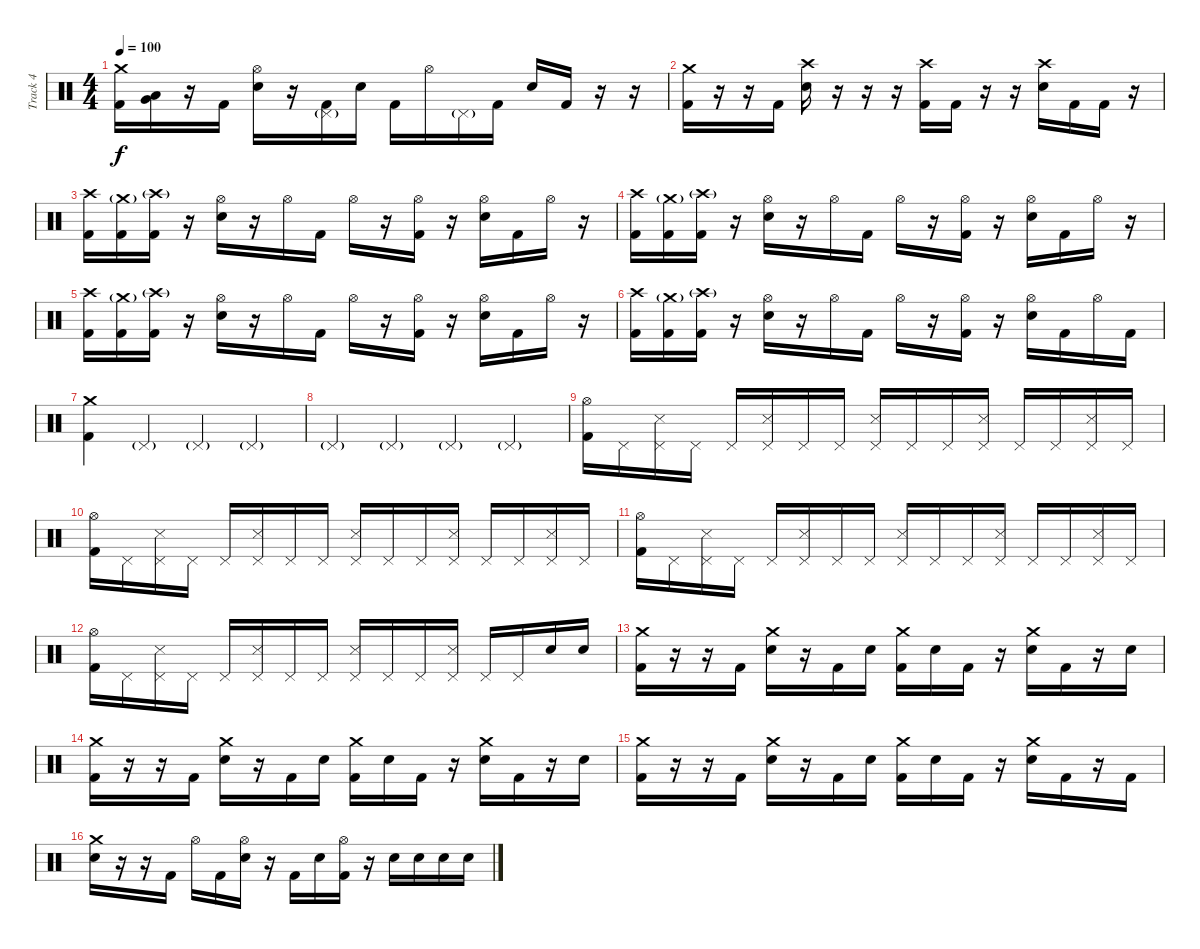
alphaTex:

\track ("Track 4" "Track 4") {instrument percussion}
\staff {score}
\articulation defaults
\ts (4 4)
\tempo 100
\clef neutral
\ks c
("Crash medium (hit)" "Kick (hit) 2").16{dy f} ("Very Low Tom (hit)" "Low Tom (hit)").16 r.16 "Kick (hit) 2".16 ("Hi-Hat (open)" "Electric Snare (hit)").16 r.16 ("Pedal Hi-Hat (hit)"{g} "Kick (hit) 2").16 "Electric Snare (hit)".16 "Kick (hit) 2".16 "Hi-Hat (open)".16 "Pedal Hi-Hat (hit)"{g}.16 "Kick (hit) 2".16 "Electric Snare (hit)".16 "Kick (hit) 2".16 r.16 r.16 |
("Crash medium (hit)" "Kick (hit) 2").16 r.16 r.16 "Kick (hit) 2".16 ("Crash high (hit)" "Electric Snare (hit)").16 r.16 r.16 r.16 ("Crash high (hit)" "Kick (hit) 2").16 "Kick (hit) 2".16 r.16 r.16 ("Crash high (hit)" "Electric Snare (hit)").16 "Kick (hit) 2".16 "Kick (hit) 2".16 r.16 |
("Crash high (hit)" "Kick (hit) 2").16 ("Crash medium (hit)"{g} "Kick (hit) 2").16 ("Crash high (hit)"{g} "Kick (hit) 2").16 r.16 ("Hi-Hat (open)" "Electric Snare (hit)").16 r.16 "Hi-Hat (open)".16 "Kick (hit) 2".16 "Hi-Hat (open)".16 r.16 ("Hi-Hat (open)" "Kick (hit) 2").16 r.16 ("Hi-Hat (open)" "Electric Snare (hit)").16 "Kick (hit) 2".16 "Hi-Hat (open)".16 r.16 |
("Crash high (hit)" "Kick (hit) 2").16 ("Crash medium (hit)"{g} "Kick (hit) 2").16 ("Crash high (hit)"{g} "Kick (hit) 2").16 r.16 ("Hi-Hat (open)" "Electric Snare (hit)").16 r.16 "Hi-Hat (open)".16 "Kick (hit) 2".16 "Hi-Hat (open)".16 r.16 ("Hi-Hat (open)" "Kick (hit) 2").16 r.16 ("Hi-Hat (open)" "Electric Snare (hit)").16 "Kick (hit) 2".16 "Hi-Hat (open)".16 r.16 |
("Crash high (hit)" "Kick (hit) 2").16 ("Crash medium (hit)"{g} "Kick (hit) 2").16 ("Crash high (hit)"{g} "Kick (hit) 2").16 r.16 ("Hi-Hat (open)" "Electric Snare (hit)").16 r.16 "Hi-Hat (open)".16 "Kick (hit) 2".16 "Hi-Hat (open)".16 r.16 ("Hi-Hat (open)" "Kick (hit) 2").16 r.16 ("Hi-Hat (open)" "Electric Snare (hit)").16 "Kick (hit) 2".16 "Hi-Hat (open)".16 r.16 |
("Crash high (hit)" "Kick (hit) 2").16 ("Crash medium (hit)"{g} "Kick (hit) 2").16 ("Crash high (hit)"{g} "Kick (hit) 2").16 r.16 ("Hi-Hat (open)" "Electric Snare (hit)").16 r.16 "Hi-Hat (open)".16 "Kick (hit) 2".16 "Hi-Hat (open)".16 r.16 ("Hi-Hat (open)" "Kick (hit) 2").16 r.16 ("Hi-Hat (open)" "Electric Snare (hit)").16 "Kick (hit) 2".16 "Hi-Hat (open)".16 "Kick (hit) 2".16 |
("Crash medium (hit)" "Kick (hit) 2").4 "Pedal Hi-Hat (hit)"{g}.4 "Pedal Hi-Hat (hit)"{g}.4 "Pedal Hi-Hat (hit)"{g}.4 |
"Pedal Hi-Hat (hit)"{g}.4 "Pedal Hi-Hat (hit)"{g}.4 "Pedal Hi-Hat (hit)"{g}.4 "Pedal Hi-Hat (hit)"{g}.4 |
("Hi-Hat (open)" "Kick (hit) 2").16 "Pedal Hi-Hat (hit)".16 ("Pedal Hi-Hat (hit)" "Metronome (hit)").16 "Pedal Hi-Hat (hit)".16 "Pedal Hi-Hat (hit)".16 ("Pedal Hi-Hat (hit)" "Metronome (hit)").16 "Pedal Hi-Hat (hit)".16 "Pedal Hi-Hat (hit)".16 ("Pedal Hi-Hat (hit)" "Metronome (hit)").16 "Pedal Hi-Hat (hit)".16 "Pedal Hi-Hat (hit)".16 ("Pedal Hi-Hat (hit)" "Metronome (hit)").16 "Pedal Hi-Hat (hit)".16 "Pedal Hi-Hat (hit)".16 ("Pedal Hi-Hat (hit)" "Metronome (hit)").16 "Pedal Hi-Hat (hit)".16 |
("Hi-Hat (open)" "Kick (hit) 2").16 "Pedal Hi-Hat (hit)".16 ("Pedal Hi-Hat (hit)" "Metronome (hit)").16 "Pedal Hi-Hat (hit)".16 "Pedal Hi-Hat (hit)".16 ("Pedal Hi-Hat (hit)" "Metronome (hit)").16 "Pedal Hi-Hat (hit)".16 "Pedal Hi-Hat (hit)".16 ("Pedal Hi-Hat (hit)" "Metronome (hit)").16 "Pedal Hi-Hat (hit)".16 "Pedal Hi-Hat (hit)".16 ("Pedal Hi-Hat (hit)" "Metronome (hit)").16 "Pedal Hi-Hat (hit)".16 "Pedal Hi-Hat (hit)".16 ("Pedal Hi-Hat (hit)" "Metronome (hit)").16 "Pedal Hi-Hat (hit)".16 |
("Hi-Hat (open)" "Kick (hit) 2").16 "Pedal Hi-Hat (hit)".16 ("Pedal Hi-Hat (hit)" "Metronome (hit)").16 "Pedal Hi-Hat (hit)".16 "Pedal Hi-Hat (hit)".16 ("Pedal Hi-Hat (hit)" "Metronome (hit)").16 "Pedal Hi-Hat (hit)".16 "Pedal Hi-Hat (hit)".16 ("Pedal Hi-Hat (hit)" "Metronome (hit)").16 "Pedal Hi-Hat (hit)".16 "Pedal Hi-Hat (hit)".16 ("Pedal Hi-Hat (hit)" "Metronome (hit)").16 "Pedal Hi-Hat (hit)".16 "Pedal Hi-Hat (hit)".16 ("Pedal Hi-Hat (hit)" "Metronome (hit)").16 "Pedal Hi-Hat (hit)".16 |
("Hi-Hat (open)" "Kick (hit) 2").16 "Pedal Hi-Hat (hit)".16 ("Pedal Hi-Hat (hit)" "Metronome (hit)").16 "Pedal Hi-Hat (hit)".16 "Pedal Hi-Hat (hit)".16 ("Pedal Hi-Hat (hit)" "Metronome (hit)").16 "Pedal Hi-Hat (hit)".16 "Pedal Hi-Hat (hit)".16 ("Pedal Hi-Hat (hit)" "Metronome (hit)").16 "Pedal Hi-Hat (hit)".16 "Pedal Hi-Hat (hit)".16 ("Pedal Hi-Hat (hit)" "Metronome (hit)").16 "Pedal Hi-Hat (hit)".16 "Pedal Hi-Hat (hit)".16 "Electric Snare (hit)".16 "Electric Snare (hit)".16 |
("Crash medium (hit)" "Kick (hit) 2").16 r.16 r.16 "Kick (hit) 2".16 ("Crash medium (hit)" "Electric Snare (hit)").16 r.16 "Kick (hit) 2".16 "Electric Snare (hit)".16 ("Crash medium (hit)" "Kick (hit) 2").16 "Electric Snare (hit)".16 "Kick (hit) 2".16 r.16 ("Crash medium (hit)" "Electric Snare (hit)").16 "Kick (hit) 2".16 r.16 "Electric Snare (hit)".16 |
("Crash medium (hit)" "Kick (hit) 2").16 r.16 r.16 "Kick (hit) 2".16 ("Crash medium (hit)" "Electric Snare (hit)").16 r.16 "Kick (hit) 2".16 "Electric Snare (hit)".16 ("Crash medium (hit)" "Kick (hit) 2").16 "Electric Snare (hit)".16 "Kick (hit) 2".16 r.16 ("Crash medium (hit)" "Electric Snare (hit)").16 "Kick (hit) 2".16 r.16 "Electric Snare (hit)".16 |
("Crash medium (hit)" "Kick (hit) 2").16 r.16 r.16 "Kick (hit) 2".16 ("Crash medium (hit)" "Electric Snare (hit)").16 r.16 "Kick (hit) 2".16 "Electric Snare (hit)".16 ("Crash medium (hit)" "Kick (hit) 2").16 "Electric Snare (hit)".16 "Kick (hit) 2".16 r.16 ("Crash medium (hit)" "Electric Snare (hit)").16 "Kick (hit) 2".16 r.16 "Kick (hit) 2".16 |
("Crash medium (hit)" "Electric Snare (hit)").16 r.16 r.16 "Kick (hit) 2".16 "Hi-Hat (open)".16 "Kick (hit) 2".16 ("Hi-Hat (open)" "Electric Snare (hit)").16 r.16 "Kick (hit) 2".16 "Electric Snare (hit)".16 ("Hi-Hat (open)" "Kick (hit) 2").16 r.16 "Electric Snare (hit)".16 "Electric Snare (hit)".16 "Electric Snare (hit)".16 "Electric Snare (hit)".16
